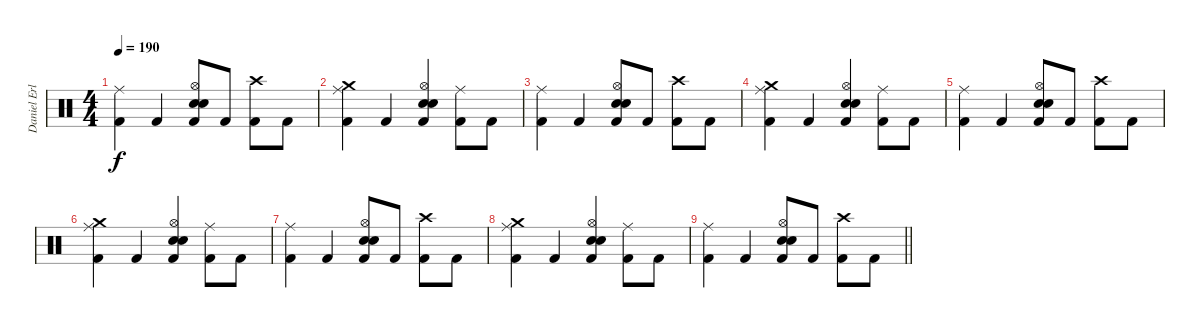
\track ("Daniel Erlandsson" "Daniel Erl") {instrument percussion}
\staff {score}
\articulation defaults
\ts (4 4)
\tempo 190
\clef neutral
\ks c
("Ride (middle)" "Kick (hit) 2").4{dy f} "Kick (hit) 2".4 ("Hi-Hat (open)" "Snare (hit) 2" "Electric Snare (hit)" "Kick (hit) 2").8 "Kick (hit) 2".8 ("Crash high (hit)" "Kick (hit) 2").8 "Kick (hit) 2".8 |
("Crash medium (hit)" "Ride (middle)" "Kick (hit) 2").4 "Kick (hit) 2".4 ("Hi-Hat (open)" "Snare (hit) 2" "Electric Snare (hit)" "Kick (hit) 2").4 ("Ride (middle)" "Kick (hit) 2").8 "Kick (hit) 2".8 |
("Ride (middle)" "Kick (hit) 2").4 "Kick (hit) 2".4 ("Hi-Hat (open)" "Snare (hit) 2" "Electric Snare (hit)" "Kick (hit) 2").8 "Kick (hit) 2".8 ("Crash high (hit)" "Kick (hit) 2").8 "Kick (hit) 2".8 |
("Crash medium (hit)" "Ride (middle)" "Kick (hit) 2").4 "Kick (hit) 2".4 ("Hi-Hat (open)" "Snare (hit) 2" "Electric Snare (hit)" "Kick (hit) 2").4 ("Ride (middle)" "Kick (hit) 2").8 "Kick (hit) 2".8 |
("Ride (middle)" "Kick (hit) 2").4 "Kick (hit) 2".4 ("Hi-Hat (open)" "Snare (hit) 2" "Electric Snare (hit)" "Kick (hit) 2").8 "Kick (hit) 2".8 ("Crash high (hit)" "Kick (hit) 2").8 "Kick (hit) 2".8 |
("Crash medium (hit)" "Ride (middle)" "Kick (hit) 2").4 "Kick (hit) 2".4 ("Hi-Hat (open)" "Snare (hit) 2" "Electric Snare (hit)" "Kick (hit) 2").4 ("Ride (middle)" "Kick (hit) 2").8 "Kick (hit) 2".8 |
("Ride (middle)" "Kick (hit) 2").4 "Kick (hit) 2".4 ("Hi-Hat (open)" "Snare (hit) 2" "Electric Snare (hit)" "Kick (hit) 2").8 "Kick (hit) 2".8 ("Crash high (hit)" "Kick (hit) 2").8 "Kick (hit) 2".8 |
("Crash medium (hit)" "Ride (middle)" "Kick (hit) 2").4 "Kick (hit) 2".4 ("Hi-Hat (open)" "Snare (hit) 2" "Electric Snare (hit)" "Kick (hit) 2").4 ("Ride (middle)" "Kick (hit) 2").8 "Kick (hit) 2".8 |
\barLineRight lightlight
("Ride (middle)" "Kick (hit) 2").4 "Kick (hit) 2".4 ("Hi-Hat (open)" "Snare (hit) 2" "Electric Snare (hit)" "Kick (hit) 2").8 "Kick (hit) 2".8 ("Crash high (hit)" "Kick (hit) 2").8 "Kick (hit) 2".8
